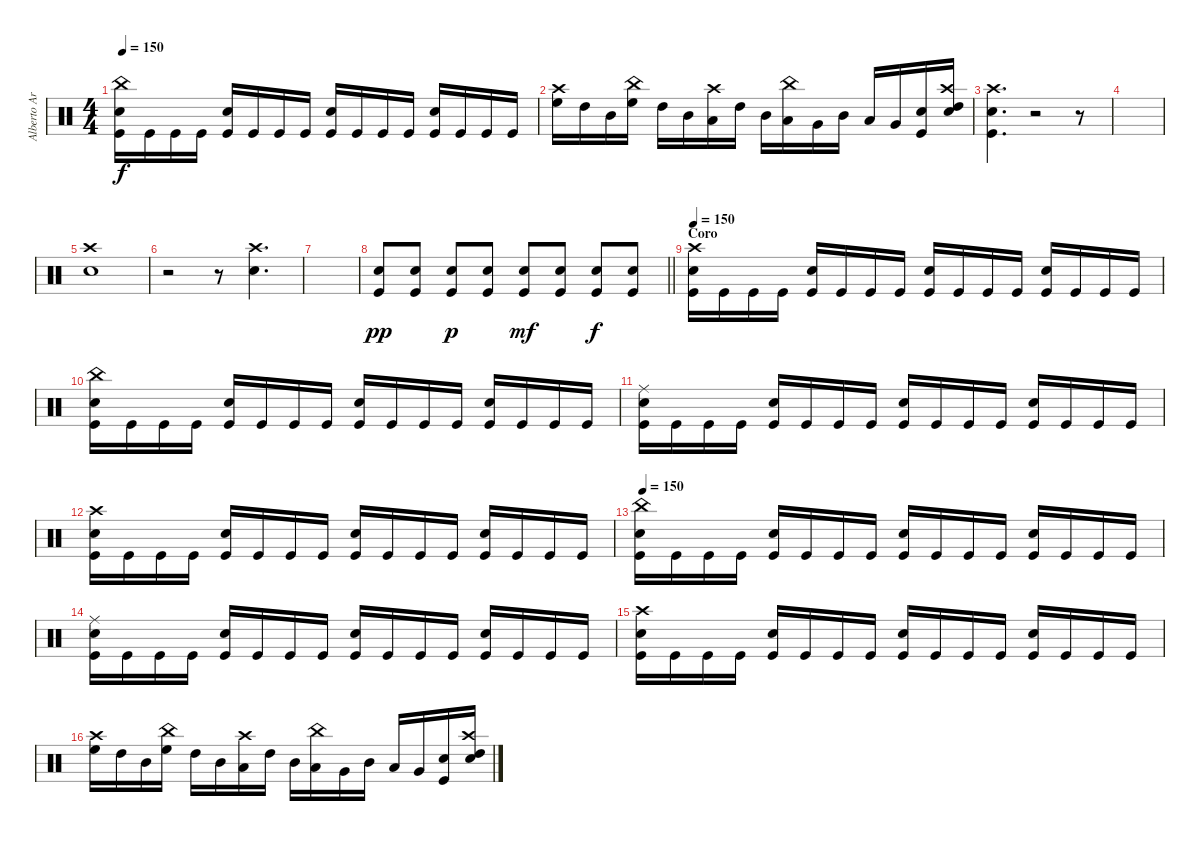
\track ("Alberto Ardines" "Alberto Ar") {instrument percussion}
\staff {score}
\articulation defaults
\ts (4 4)
\tempo 150
\clef neutral
\ks c
("China (hit)" "Kick (hit)" "Snare (hit) 2").16{dy f} "Kick (hit)".16 "Kick (hit)".16 "Kick (hit)".16 ("Kick (hit)" "Snare (hit) 2").16 "Kick (hit)".16 "Kick (hit)".16 "Kick (hit)".16 ("Kick (hit)" "Snare (hit) 2").16 "Kick (hit)".16 "Kick (hit)".16 "Kick (hit)".16 ("Kick (hit)" "Snare (hit) 2").16 "Kick (hit)".16 "Kick (hit)".16 "Kick (hit)".16 |
("Crash high (hit)" "High Floor Tom (hit)").16 "High Tom (hit)".16 "Mid Tom (hit)".16 ("China (hit)" "High Floor Tom (hit)").16 "High Tom (hit)".16 "Mid Tom (hit)".16 ("Crash high (hit)" "Low Tom (hit)").16 "High Tom (hit)".16 "Mid Tom (hit)".16 ("China (hit)" "Low Tom (hit)").16 "Very Low Tom (hit)".16 "Mid Tom (hit)".16 "Low Tom (hit)".16 "Very Low Tom (hit)".16 ("Snare (hit) 2" "Kick (hit)").16 ("High Tom (hit)" "Snare (hit) 2" "Crash high (hit)").16 |
("Crash high (hit)" "Kick (hit)" "Snare (hit) 2").4{d} r.2 r.8 |
|
("Crash high (hit)" "Snare (hit) 2").1 |
r.2 r.8 ("Crash high (hit)" "Snare (hit) 2").4{d} |
|
\barLineRight lightlight
("Snare (hit) 2" "Kick (hit)").8{dy pp} ("Snare (hit) 2" "Kick (hit)").8 ("Snare (hit) 2" "Kick (hit)").8{dy p} ("Snare (hit) 2" "Kick (hit)").8 ("Snare (hit) 2" "Kick (hit)").8{dy mf} ("Snare (hit) 2" "Kick (hit)").8 ("Snare (hit) 2" "Kick (hit)").8{dy f} ("Snare (hit) 2" "Kick (hit)").8 |
\section ("" "Coro")
\tempo 150
("Crash high (hit)" "Kick (hit)" "Snare (hit) 2").16 "Kick (hit)".16 "Kick (hit)".16 "Kick (hit)".16 ("Kick (hit)" "Snare (hit) 2").16 "Kick (hit)".16 "Kick (hit)".16 "Kick (hit)".16 ("Kick (hit)" "Snare (hit) 2").16 "Kick (hit)".16 "Kick (hit)".16 "Kick (hit)".16 ("Kick (hit)" "Snare (hit) 2").16 "Kick (hit)".16 "Kick (hit)".16 "Kick (hit)".16 |
("China (hit)" "Kick (hit)" "Snare (hit) 2").16 "Kick (hit)".16 "Kick (hit)".16 "Kick (hit)".16 ("Kick (hit)" "Snare (hit) 2").16 "Kick (hit)".16 "Kick (hit)".16 "Kick (hit)".16 ("Kick (hit)" "Snare (hit) 2").16 "Kick (hit)".16 "Kick (hit)".16 "Kick (hit)".16 ("Kick (hit)" "Snare (hit) 2").16 "Kick (hit)".16 "Kick (hit)".16 "Kick (hit)".16 |
("Ride (middle)" "Kick (hit)" "Snare (hit) 2").16 "Kick (hit)".16 "Kick (hit)".16 "Kick (hit)".16 ("Kick (hit)" "Snare (hit) 2").16 "Kick (hit)".16 "Kick (hit)".16 "Kick (hit)".16 ("Kick (hit)" "Snare (hit) 2").16 "Kick (hit)".16 "Kick (hit)".16 "Kick (hit)".16 ("Kick (hit)" "Snare (hit) 2").16 "Kick (hit)".16 "Kick (hit)".16 "Kick (hit)".16 |
("Crash high (hit)" "Kick (hit)" "Snare (hit) 2").16 "Kick (hit)".16 "Kick (hit)".16 "Kick (hit)".16 ("Kick (hit)" "Snare (hit) 2").16 "Kick (hit)".16 "Kick (hit)".16 "Kick (hit)".16 ("Kick (hit)" "Snare (hit) 2").16 "Kick (hit)".16 "Kick (hit)".16 "Kick (hit)".16 ("Kick (hit)" "Snare (hit) 2").16 "Kick (hit)".16 "Kick (hit)".16 "Kick (hit)".16 |
\tempo 150
("China (hit)" "Kick (hit)" "Snare (hit) 2").16 "Kick (hit)".16 "Kick (hit)".16 "Kick (hit)".16 ("Kick (hit)" "Snare (hit) 2").16 "Kick (hit)".16 "Kick (hit)".16 "Kick (hit)".16 ("Kick (hit)" "Snare (hit) 2").16 "Kick (hit)".16 "Kick (hit)".16 "Kick (hit)".16 ("Kick (hit)" "Snare (hit) 2").16 "Kick (hit)".16 "Kick (hit)".16 "Kick (hit)".16 |
("Ride (middle)" "Kick (hit)" "Snare (hit) 2").16 "Kick (hit)".16 "Kick (hit)".16 "Kick (hit)".16 ("Kick (hit)" "Snare (hit) 2").16 "Kick (hit)".16 "Kick (hit)".16 "Kick (hit)".16 ("Kick (hit)" "Snare (hit) 2").16 "Kick (hit)".16 "Kick (hit)".16 "Kick (hit)".16 ("Kick (hit)" "Snare (hit) 2").16 "Kick (hit)".16 "Kick (hit)".16 "Kick (hit)".16 |
("Crash high (hit)" "Kick (hit)" "Snare (hit) 2").16 "Kick (hit)".16 "Kick (hit)".16 "Kick (hit)".16 ("Kick (hit)" "Snare (hit) 2").16 "Kick (hit)".16 "Kick (hit)".16 "Kick (hit)".16 ("Kick (hit)" "Snare (hit) 2").16 "Kick (hit)".16 "Kick (hit)".16 "Kick (hit)".16 ("Kick (hit)" "Snare (hit) 2").16 "Kick (hit)".16 "Kick (hit)".16 "Kick (hit)".16 |
("Crash high (hit)" "High Floor Tom (hit)").16 "High Tom (hit)".16 "Mid Tom (hit)".16 ("China (hit)" "High Floor Tom (hit)").16 "High Tom (hit)".16 "Mid Tom (hit)".16 ("Crash high (hit)" "Low Tom (hit)").16 "High Tom (hit)".16 "Mid Tom (hit)".16 ("China (hit)" "Low Tom (hit)").16 "Very Low Tom (hit)".16 "Mid Tom (hit)".16 "Low Tom (hit)".16 "Very Low Tom (hit)".16 ("Snare (hit) 2" "Kick (hit)").16 ("High Tom (hit)" "Snare (hit) 2" "Crash high (hit)").16
